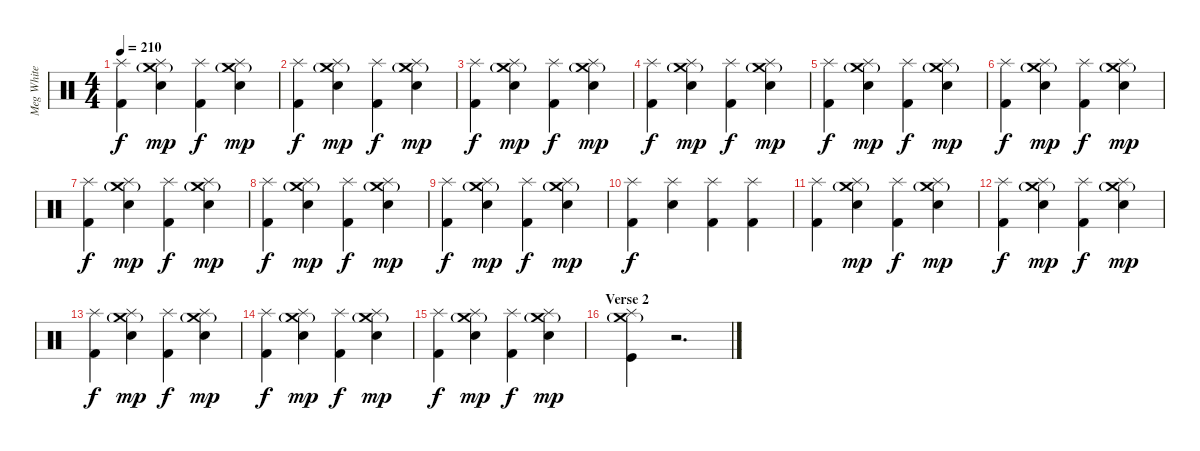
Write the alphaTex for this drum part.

\track ("Meg White (Drums)" "Meg White ") {instrument percussion}
\staff {score}
\articulation defaults
\ts (4 4)
\tempo 210
\clef neutral
\ks c
("Kick (hit) 2" "Splash (hit)").4{dy f} ("Electric Snare (hit)" "Splash (hit)" "Crash medium (hit)"{g}).4{dy mp} ("Kick (hit) 2" "Splash (hit)").4{dy f} ("Electric Snare (hit)" "Splash (hit)" "Crash medium (hit)"{g}).4{dy mp} |
("Kick (hit) 2" "Splash (hit)").4{dy f} ("Electric Snare (hit)" "Splash (hit)" "Crash medium (hit)"{g}).4{dy mp} ("Kick (hit) 2" "Splash (hit)").4{dy f} ("Electric Snare (hit)" "Splash (hit)" "Crash medium (hit)"{g}).4{dy mp} |
("Kick (hit) 2" "Splash (hit)").4{dy f} ("Electric Snare (hit)" "Splash (hit)" "Crash medium (hit)"{g}).4{dy mp} ("Kick (hit) 2" "Splash (hit)").4{dy f} ("Electric Snare (hit)" "Splash (hit)" "Crash medium (hit)"{g}).4{dy mp} |
("Kick (hit) 2" "Splash (hit)").4{dy f} ("Electric Snare (hit)" "Splash (hit)" "Crash medium (hit)"{g}).4{dy mp} ("Kick (hit) 2" "Splash (hit)").4{dy f} ("Electric Snare (hit)" "Splash (hit)" "Crash medium (hit)"{g}).4{dy mp} |
("Kick (hit) 2" "Splash (hit)").4{dy f} ("Electric Snare (hit)" "Splash (hit)" "Crash medium (hit)"{g}).4{dy mp} ("Kick (hit) 2" "Splash (hit)").4{dy f} ("Electric Snare (hit)" "Splash (hit)" "Crash medium (hit)"{g}).4{dy mp} |
("Kick (hit) 2" "Splash (hit)").4{dy f} ("Electric Snare (hit)" "Splash (hit)" "Crash medium (hit)"{g}).4{dy mp} ("Kick (hit) 2" "Splash (hit)").4{dy f} ("Electric Snare (hit)" "Splash (hit)" "Crash medium (hit)"{g}).4{dy mp} |
("Kick (hit) 2" "Splash (hit)").4{dy f} ("Electric Snare (hit)" "Splash (hit)" "Crash medium (hit)"{g}).4{dy mp} ("Kick (hit) 2" "Splash (hit)").4{dy f} ("Electric Snare (hit)" "Splash (hit)" "Crash medium (hit)"{g}).4{dy mp} |
("Kick (hit) 2" "Splash (hit)").4{dy f} ("Electric Snare (hit)" "Splash (hit)" "Crash medium (hit)"{g}).4{dy mp} ("Kick (hit) 2" "Splash (hit)").4{dy f} ("Electric Snare (hit)" "Splash (hit)" "Crash medium (hit)"{g}).4{dy mp} |
("Kick (hit) 2" "Splash (hit)").4{dy f} ("Electric Snare (hit)" "Splash (hit)" "Crash medium (hit)"{g}).4{dy mp} ("Kick (hit) 2" "Splash (hit)").4{dy f} ("Electric Snare (hit)" "Splash (hit)" "Crash medium (hit)"{g}).4{dy mp} |
("Kick (hit) 2" "Splash (hit)").4{dy f} ("Electric Snare (hit)" "Splash (hit)").4 ("Kick (hit) 2" "Splash (hit)").4 ("Kick (hit) 2" "Splash (hit)").4 |
("Kick (hit) 2" "Splash (hit)").4 ("Electric Snare (hit)" "Splash (hit)" "Crash medium (hit)"{g}).4{dy mp} ("Kick (hit) 2" "Splash (hit)").4{dy f} ("Electric Snare (hit)" "Splash (hit)" "Crash medium (hit)"{g}).4{dy mp} |
("Kick (hit) 2" "Splash (hit)").4{dy f} ("Electric Snare (hit)" "Splash (hit)" "Crash medium (hit)"{g}).4{dy mp} ("Kick (hit) 2" "Splash (hit)").4{dy f} ("Electric Snare (hit)" "Splash (hit)" "Crash medium (hit)"{g}).4{dy mp} |
("Kick (hit) 2" "Splash (hit)").4{dy f} ("Electric Snare (hit)" "Splash (hit)" "Crash medium (hit)"{g}).4{dy mp} ("Kick (hit) 2" "Splash (hit)").4{dy f} ("Electric Snare (hit)" "Splash (hit)" "Crash medium (hit)"{g}).4{dy mp} |
("Kick (hit) 2" "Splash (hit)").4{dy f} ("Electric Snare (hit)" "Splash (hit)" "Crash medium (hit)"{g}).4{dy mp} ("Kick (hit) 2" "Splash (hit)").4{dy f} ("Electric Snare (hit)" "Splash (hit)" "Crash medium (hit)"{g}).4{dy mp} |
("Kick (hit) 2" "Splash (hit)").4{dy f} ("Electric Snare (hit)" "Splash (hit)" "Crash medium (hit)"{g}).4{dy mp} ("Kick (hit) 2" "Splash (hit)").4{dy f} ("Electric Snare (hit)" "Splash (hit)" "Crash medium (hit)"{g}).4{dy mp} |
\section ("" "Verse 2")
("Kick (hit)" "Splash (hit)" "Crash medium (hit)"{g}).4 r.2{d}
